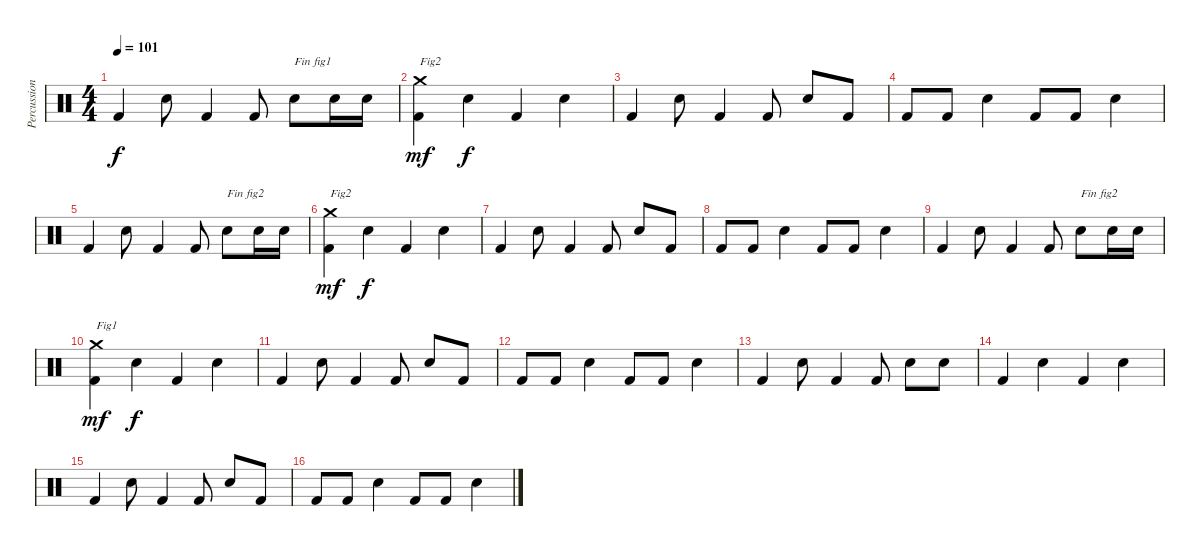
\track ("Percussions" "Percussion") {instrument percussion}
\staff {score}
\articulation defaults
\ts (4 4)
\tempo 101
\clef neutral
\ks c "Kick (hit) 2".4{dy f} "Snare (hit) 2".8 "Kick (hit) 2".4 "Kick (hit) 2".8 "Snare (hit) 2".8{txt "Fin fig1"} "Snare (hit) 2".16 "Snare (hit) 2".16
|
("Kick (hit) 2" "Crash medium (hit)").4{txt "Fig2" dy mf} "Snare (hit) 2".4{dy f} "Kick (hit) 2".4 "Snare (hit) 2".4 |
"Kick (hit) 2".4 "Snare (hit) 2".8 "Kick (hit) 2".4 "Kick (hit) 2".8 "Snare (hit) 2".8 "Kick (hit) 2".8 |
"Kick (hit) 2".8 "Kick (hit) 2".8 "Snare (hit) 2".4 "Kick (hit) 2".8 "Kick (hit) 2".8 "Snare (hit) 2".4 |
"Kick (hit) 2".4 "Snare (hit) 2".8 "Kick (hit) 2".4 "Kick (hit) 2".8 "Snare (hit) 2".8{txt "Fin fig2"} "Snare (hit) 2".16 "Snare (hit) 2".16 |
("Kick (hit) 2" "Crash medium (hit)").4{txt "Fig2" dy mf} "Snare (hit) 2".4{dy f} "Kick (hit) 2".4 "Snare (hit) 2".4 |
"Kick (hit) 2".4 "Snare (hit) 2".8 "Kick (hit) 2".4 "Kick (hit) 2".8 "Snare (hit) 2".8 "Kick (hit) 2".8 |
"Kick (hit) 2".8 "Kick (hit) 2".8 "Snare (hit) 2".4 "Kick (hit) 2".8 "Kick (hit) 2".8 "Snare (hit) 2".4 |
"Kick (hit) 2".4 "Snare (hit) 2".8 "Kick (hit) 2".4 "Kick (hit) 2".8 "Snare (hit) 2".8{txt "Fin fig2"} "Snare (hit) 2".16 "Snare (hit) 2".16 |
("Kick (hit) 2" "Crash medium (hit)").4{txt "Fig1" dy mf} "Snare (hit) 2".4{dy f} "Kick (hit) 2".4 "Snare (hit) 2".4 |
"Kick (hit) 2".4 "Snare (hit) 2".8 "Kick (hit) 2".4 "Kick (hit) 2".8 "Snare (hit) 2".8 "Kick (hit) 2".8 |
"Kick (hit) 2".8 "Kick (hit) 2".8 "Snare (hit) 2".4 "Kick (hit) 2".8 "Kick (hit) 2".8 "Snare (hit) 2".4 |
"Kick (hit) 2".4 "Snare (hit) 2".8 "Kick (hit) 2".4 "Kick (hit) 2".8 "Snare (hit) 2".8 "Snare (hit) 2".8 |
"Kick (hit) 2".4 "Snare (hit) 2".4 "Kick (hit) 2".4 "Snare (hit) 2".4 |
"Kick (hit) 2".4 "Snare (hit) 2".8 "Kick (hit) 2".4 "Kick (hit) 2".8 "Snare (hit) 2".8 "Kick (hit) 2".8 |
"Kick (hit) 2".8 "Kick (hit) 2".8 "Snare (hit) 2".4 "Kick (hit) 2".8 "Kick (hit) 2".8 "Snare (hit) 2".4
